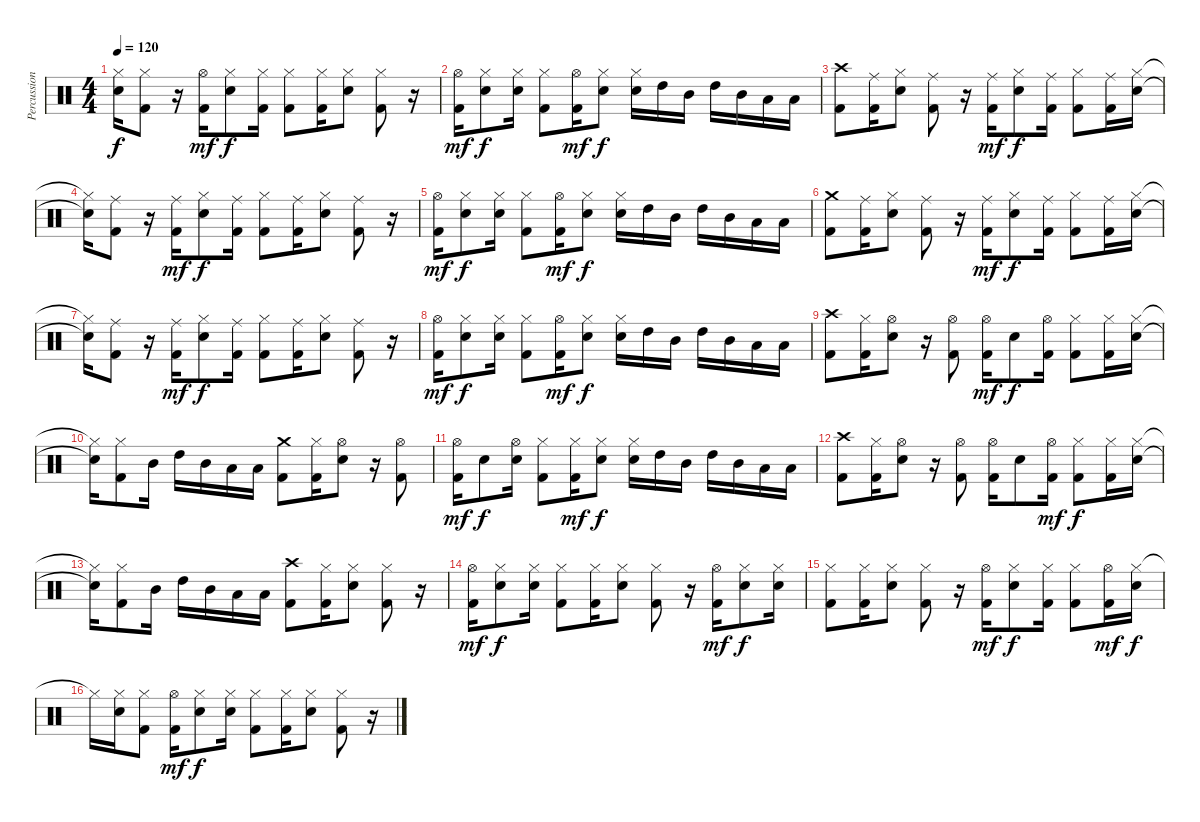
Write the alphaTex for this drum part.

\track ("Percussions" "Percussion") {instrument percussion}
\staff {score}
\articulation defaults
\ts (4 4)
\tempo 120
\clef neutral
\ks c
("Hi-Hat (closed)"{t} "Electric Snare (hit)"{t}).16{dy f} ("Hi-Hat (closed)" "Kick (hit) 2").8 r.16 ("Hi-Hat (open)" "Kick (hit) 2").16{dy mf} ("Hi-Hat (closed)" "Electric Snare (hit)").8{dy f} ("Hi-Hat (closed)" "Kick (hit) 2").16 ("Hi-Hat (closed)" "Kick (hit) 2").8 ("Hi-Hat (closed)" "Kick (hit) 2").16 ("Hi-Hat (closed)" "Electric Snare (hit)").8 ("Hi-Hat (closed)" "Kick (hit) 2").8 r.16 |
("Hi-Hat (open)" "Kick (hit) 2").16{dy mf} ("Hi-Hat (closed)" "Electric Snare (hit)").8{dy f} ("Hi-Hat (closed)" "Electric Snare (hit)").16 ("Hi-Hat (closed)" "Kick (hit) 2").8 ("Hi-Hat (open)" "Kick (hit) 2").16{dy mf} ("Hi-Hat (closed)" "Electric Snare (hit)").8{dy f} ("Hi-Hat (closed)" "Electric Snare (hit)").16 "High Tom (hit)".16 "Mid Tom (hit)".16 "High Tom (hit)".16 "Mid Tom (hit)".16 "Low Tom (hit)".16 "Low Floor Tom (hit)".16 |
("Crash high (hit)" "Kick (hit) 2").8 ("Ride (middle)" "Kick (hit) 2").16 ("Hi-Hat (closed)" "Electric Snare (hit)").8 ("Ride (middle)" "Kick (hit) 2").8 r.16 ("Ride (middle)" "Kick (hit) 2").16{dy mf} ("Hi-Hat (closed)" "Electric Snare (hit)").8{dy f} ("Ride (middle)" "Kick (hit) 2").16 ("Hi-Hat (closed)" "Kick (hit) 2").8 ("Ride (middle)" "Kick (hit) 2").16 ("Hi-Hat (closed)" "Electric Snare (hit)").16 |
("Hi-Hat (closed)"{t} "Electric Snare (hit)"{t}).16 ("Ride (middle)" "Kick (hit) 2").8 r.16 ("Ride (middle)" "Kick (hit) 2").16{dy mf} ("Hi-Hat (closed)" "Electric Snare (hit)").8{dy f} ("Ride (middle)" "Kick (hit) 2").16 ("Hi-Hat (closed)" "Kick (hit) 2").8 ("Ride (middle)" "Kick (hit) 2").16 ("Hi-Hat (closed)" "Electric Snare (hit)").8 ("Ride (middle)" "Kick (hit) 2").8 r.16 |
("Hi-Hat (open)" "Kick (hit) 2").16{dy mf} ("Hi-Hat (closed)" "Electric Snare (hit)").8{dy f} ("Hi-Hat (closed)" "Electric Snare (hit)").16 ("Hi-Hat (closed)" "Kick (hit) 2").8 ("Hi-Hat (open)" "Kick (hit) 2").16{dy mf} ("Hi-Hat (closed)" "Electric Snare (hit)").8{dy f} ("Hi-Hat (closed)" "Electric Snare (hit)").16 "High Tom (hit)".16 "Mid Tom (hit)".16 "High Tom (hit)".16 "Mid Tom (hit)".16 "Low Tom (hit)".16 "Low Floor Tom (hit)".16 |
("Crash medium (hit)" "Kick (hit) 2").8 ("Ride (middle)" "Kick (hit) 2").16 ("Hi-Hat (closed)" "Electric Snare (hit)").8 ("Ride (middle)" "Kick (hit) 2").8 r.16 ("Ride (middle)" "Kick (hit) 2").16{dy mf} ("Hi-Hat (closed)" "Electric Snare (hit)").8{dy f} ("Ride (middle)" "Kick (hit) 2").16 ("Hi-Hat (closed)" "Kick (hit) 2").8 ("Ride (middle)" "Kick (hit) 2").16 ("Hi-Hat (closed)" "Electric Snare (hit)").16 |
("Hi-Hat (closed)"{t} "Electric Snare (hit)"{t}).16 ("Ride (middle)" "Kick (hit) 2").8 r.16 ("Ride (middle)" "Kick (hit) 2").16{dy mf} ("Hi-Hat (closed)" "Electric Snare (hit)").8{dy f} ("Ride (middle)" "Kick (hit) 2").16 ("Hi-Hat (closed)" "Kick (hit) 2").8 ("Ride (middle)" "Kick (hit) 2").16 ("Hi-Hat (closed)" "Electric Snare (hit)").8 ("Ride (middle)" "Kick (hit) 2").8 r.16 |
("Hi-Hat (open)" "Kick (hit) 2").16{dy mf} ("Hi-Hat (closed)" "Electric Snare (hit)").8{dy f} ("Hi-Hat (closed)" "Electric Snare (hit)").16 ("Hi-Hat (closed)" "Kick (hit) 2").8 ("Hi-Hat (open)" "Kick (hit) 2").16{dy mf} ("Hi-Hat (closed)" "Electric Snare (hit)").8{dy f} ("Hi-Hat (closed)" "Electric Snare (hit)").16 "High Tom (hit)".16 "Mid Tom (hit)".16 "High Tom (hit)".16 "Mid Tom (hit)".16 "Low Tom (hit)".16 "Low Floor Tom (hit)".16 |
("Crash high (hit)" "Kick (hit) 2").8 ("Hi-Hat (closed)" "Kick (hit) 2").16 ("Hi-Hat (open)" "Electric Snare (hit)").8 r.16 ("Hi-Hat (open)" "Kick (hit) 2").8 ("Hi-Hat (open)" "Kick (hit) 2").16{dy mf} "Electric Snare (hit)".8{dy f} ("Hi-Hat (open)" "Kick (hit) 2").16 ("Hi-Hat (closed)" "Kick (hit) 2").8 ("Hi-Hat (closed)" "Kick (hit) 2").16 ("Hi-Hat (closed)" "Electric Snare (hit)").16 |
("Hi-Hat (closed)"{t} "Electric Snare (hit)"{t}).16 ("Hi-Hat (closed)" "Kick (hit) 2").8 "Mid Tom (hit)".16 "High Tom (hit)".16 "Mid Tom (hit)".16 "Low Tom (hit)".16 "Low Floor Tom (hit)".16 ("Crash medium (hit)" "Kick (hit) 2").8 ("Hi-Hat (closed)" "Kick (hit) 2").16 ("Hi-Hat (open)" "Electric Snare (hit)").8 r.16 ("Hi-Hat (open)" "Kick (hit) 2").8 |
("Hi-Hat (open)" "Kick (hit) 2").16{dy mf} "Electric Snare (hit)".8{dy f} ("Hi-Hat (open)" "Electric Snare (hit)").16 ("Hi-Hat (closed)" "Kick (hit) 2").8 ("Hi-Hat (closed)" "Kick (hit) 2").16{dy mf} ("Hi-Hat (closed)" "Electric Snare (hit)").8{dy f} ("Hi-Hat (closed)" "Electric Snare (hit)").16 "High Tom (hit)".16 "Mid Tom (hit)".16 "High Tom (hit)".16 "Mid Tom (hit)".16 "Low Tom (hit)".16 "Low Floor Tom (hit)".16 |
("Crash high (hit)" "Kick (hit) 2").8 ("Hi-Hat (closed)" "Kick (hit) 2").16 ("Hi-Hat (open)" "Electric Snare (hit)").8 r.16 ("Hi-Hat (open)" "Kick (hit) 2").8 ("Hi-Hat (open)" "Kick (hit) 2").16 "Electric Snare (hit)".8 ("Hi-Hat (open)" "Kick (hit) 2").16{dy mf} ("Hi-Hat (closed)" "Kick (hit) 2").8{dy f} ("Hi-Hat (closed)" "Kick (hit) 2").16 ("Hi-Hat (closed)" "Electric Snare (hit)").16 |
("Hi-Hat (closed)"{t} "Electric Snare (hit)"{t}).16 ("Hi-Hat (closed)" "Kick (hit) 2").8 "Mid Tom (hit)".16 "High Tom (hit)".16 "Mid Tom (hit)".16 "Low Tom (hit)".16 "Low Floor Tom (hit)".16 ("Crash high (hit)" "Kick (hit) 2").8 ("Hi-Hat (closed)" "Kick (hit) 2").16 ("Hi-Hat (closed)" "Electric Snare (hit)").8 ("Hi-Hat (closed)" "Kick (hit) 2").8 r.16 |
("Hi-Hat (open)" "Kick (hit) 2").16{dy mf} ("Hi-Hat (closed)" "Electric Snare (hit)").8{dy f} ("Hi-Hat (closed)" "Electric Snare (hit)").16 ("Hi-Hat (closed)" "Kick (hit) 2").8 ("Hi-Hat (closed)" "Kick (hit) 2").16 ("Hi-Hat (closed)" "Electric Snare (hit)").8 ("Hi-Hat (closed)" "Kick (hit) 2").8 r.16 ("Hi-Hat (open)" "Kick (hit) 2").16{dy mf} ("Hi-Hat (closed)" "Electric Snare (hit)").8{dy f} ("Hi-Hat (closed)" "Electric Snare (hit)").16 |
("Hi-Hat (closed)" "Kick (hit) 2").8 ("Hi-Hat (closed)" "Kick (hit) 2").16 ("Hi-Hat (closed)" "Electric Snare (hit)").8 ("Hi-Hat (closed)" "Kick (hit) 2").8 r.16 ("Hi-Hat (open)" "Kick (hit) 2").16{dy mf} ("Hi-Hat (closed)" "Electric Snare (hit)").8{dy f} ("Hi-Hat (closed)" "Kick (hit) 2").16 ("Hi-Hat (closed)" "Kick (hit) 2").8 ("Hi-Hat (open)" "Kick (hit) 2").16{dy mf} ("Hi-Hat (closed)" "Electric Snare (hit)").16{dy f} |
"Hi-Hat (closed)"{t}.16 ("Hi-Hat (closed)" "Electric Snare (hit)").16 ("Hi-Hat (closed)" "Kick (hit) 2").8 ("Hi-Hat (open)" "Kick (hit) 2").16{dy mf} ("Hi-Hat (closed)" "Electric Snare (hit)").8{dy f} ("Hi-Hat (closed)" "Electric Snare (hit)").16 ("Hi-Hat (closed)" "Kick (hit) 2").8 ("Hi-Hat (closed)" "Kick (hit) 2").16 ("Hi-Hat (closed)" "Electric Snare (hit)").8 ("Hi-Hat (closed)" "Kick (hit) 2").8 r.16
